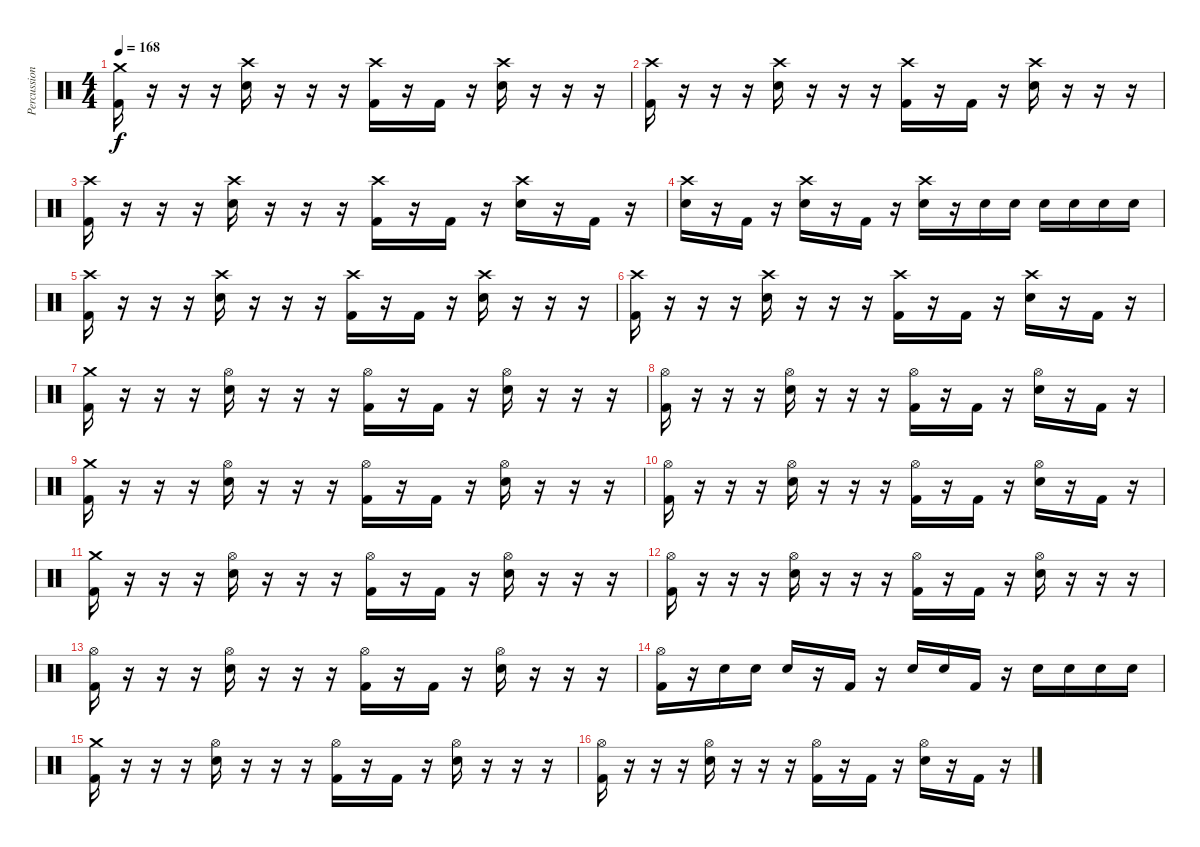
\track ("Percussion" "Percussion") {instrument percussion}
\staff {score}
\articulation defaults
\ts (4 4)
\tempo 168
\clef neutral
\ks c
("Crash medium (hit)" "Kick (hit) 2").16{dy f} r.16 r.16 r.16 ("Crash high (hit)" "Snare (hit) 2").16 r.16 r.16 r.16 ("Crash high (hit)" "Kick (hit) 2").16 r.16 "Kick (hit) 2".16 r.16 ("Crash high (hit)" "Snare (hit) 2").16 r.16 r.16 r.16 |
("Crash high (hit)" "Kick (hit) 2").16 r.16 r.16 r.16 ("Crash high (hit)" "Snare (hit) 2").16 r.16 r.16 r.16 ("Crash high (hit)" "Kick (hit) 2").16 r.16 "Kick (hit) 2".16 r.16 ("Crash high (hit)" "Snare (hit) 2").16 r.16 r.16 r.16 |
("Crash high (hit)" "Kick (hit) 2").16 r.16 r.16 r.16 ("Crash high (hit)" "Snare (hit) 2").16 r.16 r.16 r.16 ("Crash high (hit)" "Kick (hit) 2").16 r.16 "Kick (hit) 2".16 r.16 ("Crash high (hit)" "Snare (hit) 2").16 r.16 "Kick (hit) 2".16 r.16 |
("Crash high (hit)" "Snare (hit) 2").16 r.16 "Kick (hit) 2".16 r.16 ("Crash high (hit)" "Snare (hit) 2").16 r.16 "Kick (hit) 2".16 r.16 ("Crash high (hit)" "Snare (hit) 2").16 r.16 "Snare (hit) 2".16 "Snare (hit) 2".16 "Snare (hit) 2".16 "Snare (hit) 2".16 "Snare (hit) 2".16 "Snare (hit) 2".16 |
("Crash high (hit)" "Kick (hit) 2").16 r.16 r.16 r.16 ("Crash high (hit)" "Snare (hit) 2").16 r.16 r.16 r.16 ("Crash high (hit)" "Kick (hit) 2").16 r.16 "Kick (hit) 2".16 r.16 ("Crash high (hit)" "Snare (hit) 2").16 r.16 r.16 r.16 |
("Crash high (hit)" "Kick (hit) 2").16 r.16 r.16 r.16 ("Crash high (hit)" "Snare (hit) 2").16 r.16 r.16 r.16 ("Crash high (hit)" "Kick (hit) 2").16 r.16 "Kick (hit) 2".16 r.16 ("Crash high (hit)" "Snare (hit) 2").16 r.16 "Kick (hit) 2".16 r.16 |
("Crash medium (hit)" "Kick (hit) 2").16 r.16 r.16 r.16 ("Hi-Hat (open)" "Snare (hit) 2").16 r.16 r.16 r.16 ("Hi-Hat (open)" "Kick (hit) 2").16 r.16 "Kick (hit) 2".16 r.16 ("Hi-Hat (open)" "Snare (hit) 2").16 r.16 r.16 r.16 |
("Hi-Hat (open)" "Kick (hit) 2").16 r.16 r.16 r.16 ("Hi-Hat (open)" "Snare (hit) 2").16 r.16 r.16 r.16 ("Hi-Hat (open)" "Kick (hit) 2").16 r.16 "Kick (hit) 2".16 r.16 ("Hi-Hat (open)" "Snare (hit) 2").16 r.16 "Kick (hit) 2".16 r.16 |
("Crash medium (hit)" "Kick (hit) 2").16 r.16 r.16 r.16 ("Hi-Hat (open)" "Snare (hit) 2").16 r.16 r.16 r.16 ("Hi-Hat (open)" "Kick (hit) 2").16 r.16 "Kick (hit) 2".16 r.16 ("Hi-Hat (open)" "Snare (hit) 2").16 r.16 r.16 r.16 |
("Hi-Hat (open)" "Kick (hit) 2").16 r.16 r.16 r.16 ("Hi-Hat (open)" "Snare (hit) 2").16 r.16 r.16 r.16 ("Hi-Hat (open)" "Kick (hit) 2").16 r.16 "Kick (hit) 2".16 r.16 ("Hi-Hat (open)" "Snare (hit) 2").16 r.16 "Kick (hit) 2".16 r.16 |
("Crash medium (hit)" "Kick (hit) 2").16 r.16 r.16 r.16 ("Hi-Hat (open)" "Snare (hit) 2").16 r.16 r.16 r.16 ("Hi-Hat (open)" "Kick (hit) 2").16 r.16 "Kick (hit) 2".16 r.16 ("Hi-Hat (open)" "Snare (hit) 2").16 r.16 r.16 r.16 |
("Hi-Hat (open)" "Kick (hit) 2").16 r.16 r.16 r.16 ("Hi-Hat (open)" "Snare (hit) 2").16 r.16 r.16 r.16 ("Hi-Hat (open)" "Kick (hit) 2").16 r.16 "Kick (hit) 2".16 r.16 ("Hi-Hat (open)" "Snare (hit) 2").16 r.16 r.16 r.16 |
("Hi-Hat (open)" "Kick (hit) 2").16 r.16 r.16 r.16 ("Hi-Hat (open)" "Snare (hit) 2").16 r.16 r.16 r.16 ("Hi-Hat (open)" "Kick (hit) 2").16 r.16 "Kick (hit) 2".16 r.16 ("Hi-Hat (open)" "Snare (hit) 2").16 r.16 r.16 r.16 |
("Hi-Hat (open)" "Kick (hit) 2").16 r.16 "Snare (hit) 2".16 "Snare (hit) 2".16 "Snare (hit) 2".16 r.16 "Kick (hit) 2".16 r.16 "Snare (hit) 2".16 "Snare (hit) 2".16 "Kick (hit) 2".16 r.16 "Snare (hit) 2".16 "Snare (hit) 2".16 "Snare (hit) 2".16 "Snare (hit) 2".16 |
("Crash medium (hit)" "Kick (hit) 2").16 r.16 r.16 r.16 ("Hi-Hat (open)" "Snare (hit) 2").16 r.16 r.16 r.16 ("Hi-Hat (open)" "Kick (hit) 2").16 r.16 "Kick (hit) 2".16 r.16 ("Hi-Hat (open)" "Snare (hit) 2").16 r.16 r.16 r.16 |
("Hi-Hat (open)" "Kick (hit) 2").16 r.16 r.16 r.16 ("Hi-Hat (open)" "Snare (hit) 2").16 r.16 r.16 r.16 ("Hi-Hat (open)" "Kick (hit) 2").16 r.16 "Kick (hit) 2".16 r.16 ("Hi-Hat (open)" "Snare (hit) 2").16 r.16 "Kick (hit) 2".16 r.16
